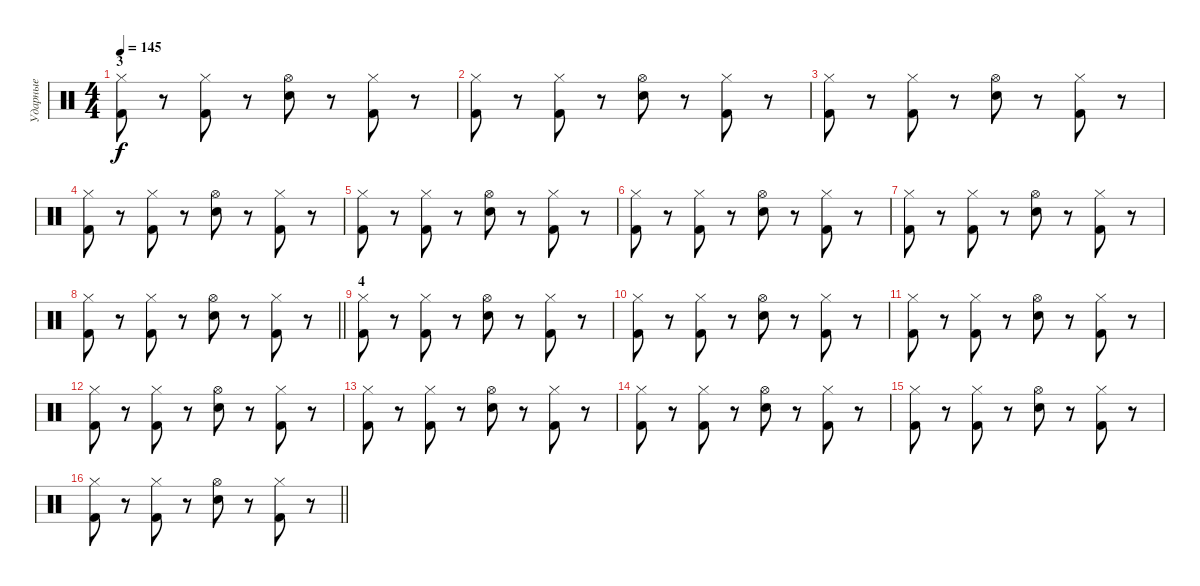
\track ("Ударные" "Ударные") {instrument percussion}
\staff {score}
\articulation defaults
\ts (4 4)
\section ("" "3")
\tempo 145
\clef neutral
\ks c
("Hi-Hat (closed)" "Kick (hit) 2").8{dy f} r.8 ("Hi-Hat (closed)" "Kick (hit) 2").8 r.8 ("Hi-Hat (open)" "Snare (hit) 2").8 r.8 ("Hi-Hat (closed)" "Kick (hit) 2").8 r.8 |
("Hi-Hat (closed)" "Kick (hit) 2").8 r.8 ("Hi-Hat (closed)" "Kick (hit) 2").8 r.8 ("Hi-Hat (open)" "Snare (hit) 2").8 r.8 ("Hi-Hat (closed)" "Kick (hit) 2").8 r.8 |
("Hi-Hat (closed)" "Kick (hit) 2").8 r.8 ("Hi-Hat (closed)" "Kick (hit) 2").8 r.8 ("Hi-Hat (open)" "Snare (hit) 2").8 r.8 ("Hi-Hat (closed)" "Kick (hit) 2").8 r.8 |
("Hi-Hat (closed)" "Kick (hit) 2").8 r.8 ("Hi-Hat (closed)" "Kick (hit) 2").8 r.8 ("Hi-Hat (open)" "Snare (hit) 2").8 r.8 ("Hi-Hat (closed)" "Kick (hit) 2").8 r.8 |
("Hi-Hat (closed)" "Kick (hit) 2").8 r.8 ("Hi-Hat (closed)" "Kick (hit) 2").8 r.8 ("Hi-Hat (open)" "Snare (hit) 2").8 r.8 ("Hi-Hat (closed)" "Kick (hit) 2").8 r.8 |
("Hi-Hat (closed)" "Kick (hit) 2").8 r.8 ("Hi-Hat (closed)" "Kick (hit) 2").8 r.8 ("Hi-Hat (open)" "Snare (hit) 2").8 r.8 ("Hi-Hat (closed)" "Kick (hit) 2").8 r.8 |
("Hi-Hat (closed)" "Kick (hit) 2").8 r.8 ("Hi-Hat (closed)" "Kick (hit) 2").8 r.8 ("Hi-Hat (open)" "Snare (hit) 2").8 r.8 ("Hi-Hat (closed)" "Kick (hit) 2").8 r.8 |
\barLineRight lightlight
("Hi-Hat (closed)" "Kick (hit) 2").8 r.8 ("Hi-Hat (closed)" "Kick (hit) 2").8 r.8 ("Hi-Hat (open)" "Snare (hit) 2").8 r.8 ("Hi-Hat (closed)" "Kick (hit) 2").8 r.8 |
\section ("" "4")
("Hi-Hat (closed)" "Kick (hit) 2").8 r.8 ("Hi-Hat (closed)" "Kick (hit) 2").8 r.8 ("Hi-Hat (open)" "Snare (hit) 2").8 r.8 ("Hi-Hat (closed)" "Kick (hit) 2").8 r.8 |
("Hi-Hat (closed)" "Kick (hit) 2").8 r.8 ("Hi-Hat (closed)" "Kick (hit) 2").8 r.8 ("Hi-Hat (open)" "Snare (hit) 2").8 r.8 ("Hi-Hat (closed)" "Kick (hit) 2").8 r.8 |
("Hi-Hat (closed)" "Kick (hit) 2").8 r.8 ("Hi-Hat (closed)" "Kick (hit) 2").8 r.8 ("Hi-Hat (open)" "Snare (hit) 2").8 r.8 ("Hi-Hat (closed)" "Kick (hit) 2").8 r.8 |
("Hi-Hat (closed)" "Kick (hit) 2").8 r.8 ("Hi-Hat (closed)" "Kick (hit) 2").8 r.8 ("Hi-Hat (open)" "Snare (hit) 2").8 r.8 ("Hi-Hat (closed)" "Kick (hit) 2").8 r.8 |
("Hi-Hat (closed)" "Kick (hit) 2").8 r.8 ("Hi-Hat (closed)" "Kick (hit) 2").8 r.8 ("Hi-Hat (open)" "Snare (hit) 2").8 r.8 ("Hi-Hat (closed)" "Kick (hit) 2").8 r.8 |
("Hi-Hat (closed)" "Kick (hit) 2").8 r.8 ("Hi-Hat (closed)" "Kick (hit) 2").8 r.8 ("Hi-Hat (open)" "Snare (hit) 2").8 r.8 ("Hi-Hat (closed)" "Kick (hit) 2").8 r.8 |
("Hi-Hat (closed)" "Kick (hit) 2").8 r.8 ("Hi-Hat (closed)" "Kick (hit) 2").8 r.8 ("Hi-Hat (open)" "Snare (hit) 2").8 r.8 ("Hi-Hat (closed)" "Kick (hit) 2").8 r.8 |
\barLineRight lightlight
("Hi-Hat (closed)" "Kick (hit) 2").8 r.8 ("Hi-Hat (closed)" "Kick (hit) 2").8 r.8 ("Hi-Hat (open)" "Snare (hit) 2").8 r.8 ("Hi-Hat (closed)" "Kick (hit) 2").8 r.8
